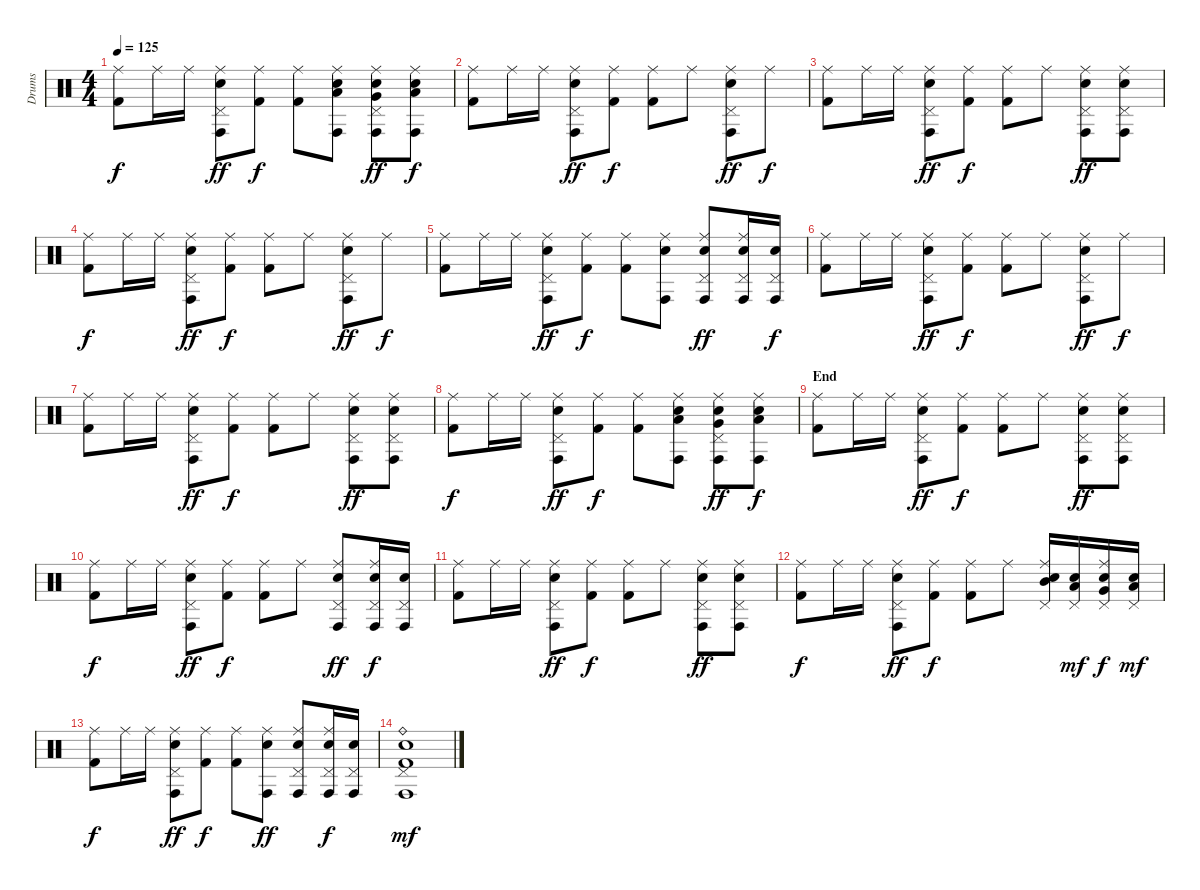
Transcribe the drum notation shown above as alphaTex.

\track ("Drums" "Drums") {instrument percussion}
\staff {score}
\articulation defaults
\ts (4 4)
\tempo 125
\clef neutral
\ks c
("Ride (middle)" "Kick (hit) 2").8{dy f} "Ride (middle)".16 "Ride (middle)".16 ("Ride (middle)" "Pedal Hi-Hat (hit)" "Conga high (hit)" "Electric Snare (hit)").8{dy ff} ("Ride (middle)" "Kick (hit) 2").8{dy f} ("Ride (middle)" "Kick (hit) 2").8 ("Ride (middle)" "Low Tom (hit)" "Conga high (hit)" "Electric Snare (hit)").8 ("Ride (middle)" "Pedal Hi-Hat (hit)" "Very Low Tom (hit)" "Conga high (hit)" "Electric Snare (hit)").8{dy ff} ("Ride (middle)" "Low Floor Tom (hit)" "Conga high (hit)" "Electric Snare (hit)").8{dy f} |
("Ride (middle)" "Kick (hit) 2").8 "Ride (middle)".16 "Ride (middle)".16 ("Ride (middle)" "Pedal Hi-Hat (hit)" "Conga high (hit)" "Electric Snare (hit)").8{dy ff} ("Ride (middle)" "Kick (hit) 2").8{dy f} ("Ride (middle)" "Kick (hit) 2").8 "Ride (middle)".8 ("Ride (middle)" "Pedal Hi-Hat (hit)" "Conga high (hit)" "Electric Snare (hit)").8{dy ff} "Ride (middle)".8{dy f} |
("Ride (middle)" "Kick (hit) 2").8 "Ride (middle)".16 "Ride (middle)".16 ("Ride (middle)" "Pedal Hi-Hat (hit)" "Conga high (hit)" "Electric Snare (hit)").8{dy ff} ("Ride (middle)" "Kick (hit) 2").8{dy f} ("Ride (middle)" "Kick (hit) 2").8 "Ride (middle)".8 ("Ride (middle)" "Pedal Hi-Hat (hit)" "Conga high (hit)" "Electric Snare (hit)").8{dy ff} ("Ride (middle)" "Pedal Hi-Hat (hit)" "Conga high (hit)" "Electric Snare (hit)").8 |
("Ride (middle)" "Kick (hit) 2").8{dy f} "Ride (middle)".16 "Ride (middle)".16 ("Ride (middle)" "Pedal Hi-Hat (hit)" "Conga high (hit)" "Electric Snare (hit)").8{dy ff} ("Ride (middle)" "Kick (hit) 2").8{dy f} ("Ride (middle)" "Kick (hit) 2").8 "Ride (middle)".8 ("Ride (middle)" "Pedal Hi-Hat (hit)" "Conga high (hit)" "Electric Snare (hit)").8{dy ff} "Ride (middle)".8{dy f} |
("Ride (middle)" "Kick (hit) 2").8 "Ride (middle)".16 "Ride (middle)".16 ("Ride (middle)" "Pedal Hi-Hat (hit)" "Conga high (hit)" "Electric Snare (hit)").8{dy ff} ("Ride (middle)" "Kick (hit) 2").8{dy f} ("Ride (middle)" "Kick (hit) 2").8 ("Ride (middle)" "Conga high (hit)" "Electric Snare (hit)").8 ("Ride (middle)" "Pedal Hi-Hat (hit)" "Conga high (hit)" "Electric Snare (hit)").8{dy ff} ("Ride (middle)" "Pedal Hi-Hat (hit)" "Conga high (hit)" "Electric Snare (hit)").16 ("Pedal Hi-Hat (hit)" "Conga high (hit)" "Electric Snare (hit)").16{dy f} |
("Ride (middle)" "Kick (hit) 2").8 "Ride (middle)".16 "Ride (middle)".16 ("Ride (middle)" "Pedal Hi-Hat (hit)" "Conga high (hit)" "Electric Snare (hit)").8{dy ff} ("Ride (middle)" "Kick (hit) 2").8{dy f} ("Ride (middle)" "Kick (hit) 2").8 "Ride (middle)".8 ("Ride (middle)" "Pedal Hi-Hat (hit)" "Conga high (hit)" "Electric Snare (hit)").8{dy ff} "Ride (middle)".8{dy f} |
("Ride (middle)" "Kick (hit) 2").8 "Ride (middle)".16 "Ride (middle)".16 ("Ride (middle)" "Pedal Hi-Hat (hit)" "Conga high (hit)" "Electric Snare (hit)").8{dy ff} ("Ride (middle)" "Kick (hit) 2").8{dy f} ("Ride (middle)" "Kick (hit) 2").8 "Ride (middle)".8 ("Ride (middle)" "Pedal Hi-Hat (hit)" "Conga high (hit)" "Electric Snare (hit)").8{dy ff} ("Ride (middle)" "Pedal Hi-Hat (hit)" "Conga high (hit)" "Electric Snare (hit)").8 |
("Ride (middle)" "Kick (hit) 2").8{dy f} "Ride (middle)".16 "Ride (middle)".16 ("Ride (middle)" "Pedal Hi-Hat (hit)" "Conga high (hit)" "Electric Snare (hit)").8{dy ff} ("Ride (middle)" "Kick (hit) 2").8{dy f} ("Ride (middle)" "Kick (hit) 2").8 ("Ride (middle)" "Low Tom (hit)" "Conga high (hit)" "Electric Snare (hit)").8 ("Ride (middle)" "Pedal Hi-Hat (hit)" "Very Low Tom (hit)" "Conga high (hit)" "Electric Snare (hit)").8{dy ff} ("Ride (middle)" "Low Floor Tom (hit)" "Conga high (hit)" "Electric Snare (hit)").8{dy f} |
\section ("" "End")
("Ride (middle)" "Kick (hit) 2").8 "Ride (middle)".16 "Ride (middle)".16 ("Ride (middle)" "Pedal Hi-Hat (hit)" "Conga high (hit)" "Electric Snare (hit)").8{dy ff} ("Ride (middle)" "Kick (hit) 2").8{dy f} ("Ride (middle)" "Kick (hit) 2").8 "Ride (middle)".8 ("Ride (middle)" "Pedal Hi-Hat (hit)" "Conga high (hit)" "Electric Snare (hit)").8{dy ff} ("Ride (middle)" "Pedal Hi-Hat (hit)" "Conga high (hit)" "Electric Snare (hit)").8 |
("Ride (middle)" "Kick (hit) 2").8{dy f} "Ride (middle)".16 "Ride (middle)".16 ("Ride (middle)" "Pedal Hi-Hat (hit)" "Conga high (hit)" "Electric Snare (hit)").8{dy ff} ("Ride (middle)" "Kick (hit) 2").8{dy f} ("Ride (middle)" "Kick (hit) 2").8 "Ride (middle)".8 ("Ride (middle)" "Pedal Hi-Hat (hit)" "Conga high (hit)" "Electric Snare (hit)").8{dy ff} ("Ride (middle)" "Pedal Hi-Hat (hit)" "Conga high (hit)" "Electric Snare (hit)").16{dy f} ("Pedal Hi-Hat (hit)" "Conga high (hit)" "Electric Snare (hit)").16 |
("Ride (middle)" "Kick (hit) 2").8 "Ride (middle)".16 "Ride (middle)".16 ("Ride (middle)" "Pedal Hi-Hat (hit)" "Conga high (hit)" "Electric Snare (hit)").8{dy ff} ("Ride (middle)" "Kick (hit) 2").8{dy f} ("Ride (middle)" "Kick (hit) 2").8 "Ride (middle)".8 ("Ride (middle)" "Pedal Hi-Hat (hit)" "Conga high (hit)" "Electric Snare (hit)").8{dy ff} ("Ride (middle)" "Pedal Hi-Hat (hit)" "Conga high (hit)" "Electric Snare (hit)").8 |
("Ride (middle)" "Kick (hit) 2").8{dy f} "Ride (middle)".16 "Ride (middle)".16 ("Ride (middle)" "Pedal Hi-Hat (hit)" "Conga high (hit)" "Electric Snare (hit)").8{dy ff} ("Ride (middle)" "Kick (hit) 2").8{dy f} ("Ride (middle)" "Kick (hit) 2").8 "Ride (middle)".8 ("Ride (middle)" "Pedal Hi-Hat (hit)" "Mid Tom (hit)" "Electric Snare (hit)").16 ("Pedal Hi-Hat (hit)" "Low Tom (hit)" "Electric Snare (hit)").16{dy mf} ("Ride (middle)" "Pedal Hi-Hat (hit)" "Very Low Tom (hit)" "Electric Snare (hit)").16{dy f} ("Pedal Hi-Hat (hit)" "Low Floor Tom (hit)" "Electric Snare (hit)").16{dy mf} |
("Ride (middle)" "Kick (hit) 2").8{dy f} "Ride (middle)".16 "Ride (middle)".16 ("Ride (middle)" "Pedal Hi-Hat (hit)" "Conga high (hit)" "Electric Snare (hit)").8{dy ff} ("Ride (middle)" "Kick (hit) 2").8{dy f} ("Ride (middle)" "Kick (hit) 2").8 ("Ride (middle)" "Conga high (hit)" "Electric Snare (hit)").8{dy ff} ("Ride (middle)" "Pedal Hi-Hat (hit)" "Conga high (hit)" "Electric Snare (hit)").8 ("Ride (middle)" "Pedal Hi-Hat (hit)" "Conga high (hit)" "Electric Snare (hit)").16{dy f} ("Pedal Hi-Hat (hit)" "Conga high (hit)" "Electric Snare (hit)").16 |
("Ride (bell)" "Pedal Hi-Hat (hit)" "Conga high (hit)" "Electric Snare (hit)" "Kick (hit) 2").1{dy mf}
